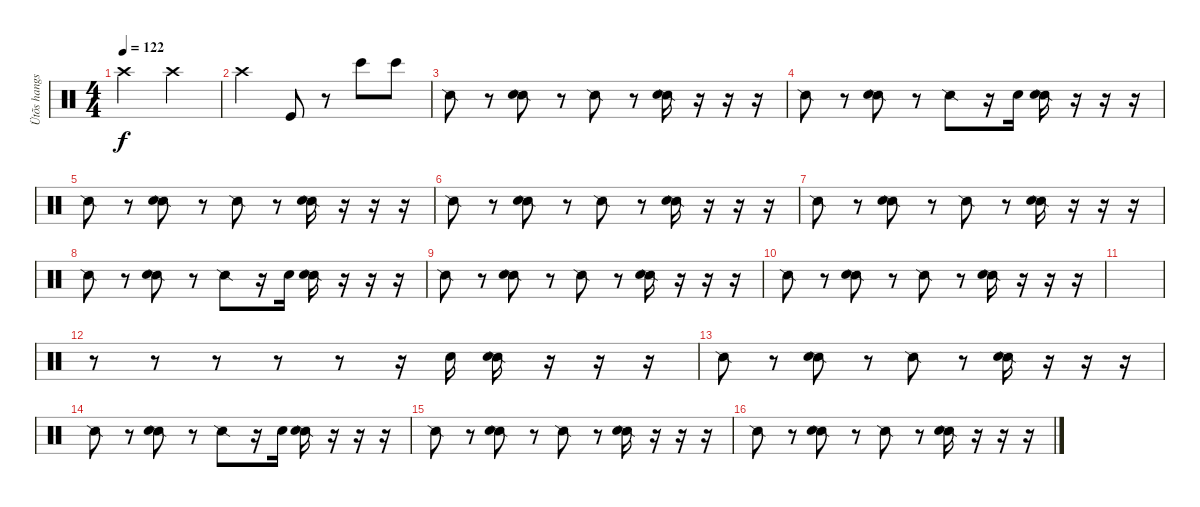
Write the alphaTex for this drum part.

\track ("Ütõs hangszer" "Ütõs hangs") {instrument percussion}
\staff {score}
\articulation defaults
\ts (4 4)
\tempo 122
\clef neutral
\ks c "Crash high (hit)".2{dy f} "Crash high (hit)".2
|
"Crash high (hit)".2 "Kick (hit)".8 r.8 "Bongo High (hit)".8 "Bongo High (hit)".8 |
"Snare (side stick) 2".8 r.8 ("Snare (side stick) 2" "Hand Clap (hit)").8 r.8 "Snare (side stick) 2".8 r.8 ("Snare (side stick) 2" "Hand Clap (hit)").16 r.16 r.16 r.16 |
"Snare (side stick) 2".8 r.8 ("Snare (side stick) 2" "Hand Clap (hit)").8 r.8 "Snare (side stick) 2".8 r.16 "Hand Clap (hit)".16 ("Snare (side stick) 2" "Hand Clap (hit)").16 r.16 r.16 r.16 |
"Snare (side stick) 2".8 r.8 ("Snare (side stick) 2" "Hand Clap (hit)").8 r.8 "Snare (side stick) 2".8 r.8 ("Snare (side stick) 2" "Hand Clap (hit)").16 r.16 r.16 r.16 |
"Snare (side stick) 2".8 r.8 ("Snare (side stick) 2" "Hand Clap (hit)").8 r.8 "Snare (side stick) 2".8 r.8 ("Snare (side stick) 2" "Hand Clap (hit)").16 r.16 r.16 r.16 |
"Snare (side stick) 2".8 r.8 ("Snare (side stick) 2" "Hand Clap (hit)").8 r.8 "Snare (side stick) 2".8 r.8 ("Snare (side stick) 2" "Hand Clap (hit)").16 r.16 r.16 r.16 |
"Snare (side stick) 2".8 r.8 ("Snare (side stick) 2" "Hand Clap (hit)").8 r.8 "Snare (side stick) 2".8 r.16 "Hand Clap (hit)".16 ("Snare (side stick) 2" "Hand Clap (hit)").16 r.16 r.16 r.16 |
"Snare (side stick) 2".8 r.8 ("Snare (side stick) 2" "Hand Clap (hit)").8 r.8 "Snare (side stick) 2".8 r.8 ("Snare (side stick) 2" "Hand Clap (hit)").16 r.16 r.16 r.16 |
"Snare (side stick) 2".8 r.8 ("Snare (side stick) 2" "Hand Clap (hit)").8 r.8 "Snare (side stick) 2".8 r.8 ("Snare (side stick) 2" "Hand Clap (hit)").16 r.16 r.16 r.16 |
|
r.8 r.8 r.8 r.8 r.8 r.16 "Hand Clap (hit)".16 ("Snare (side stick) 2" "Hand Clap (hit)").16 r.16 r.16 r.16 |
"Snare (side stick) 2".8 r.8 ("Snare (side stick) 2" "Hand Clap (hit)").8 r.8 "Snare (side stick) 2".8 r.8 ("Snare (side stick) 2" "Hand Clap (hit)").16 r.16 r.16 r.16 |
"Snare (side stick) 2".8 r.8 ("Snare (side stick) 2" "Hand Clap (hit)").8 r.8 "Snare (side stick) 2".8 r.16 "Hand Clap (hit)".16 ("Snare (side stick) 2" "Hand Clap (hit)").16 r.16 r.16 r.16 |
"Snare (side stick) 2".8 r.8 ("Snare (side stick) 2" "Hand Clap (hit)").8 r.8 "Snare (side stick) 2".8 r.8 ("Snare (side stick) 2" "Hand Clap (hit)").16 r.16 r.16 r.16 |
"Snare (side stick) 2".8 r.8 ("Snare (side stick) 2" "Hand Clap (hit)").8 r.8 "Snare (side stick) 2".8 r.8 ("Snare (side stick) 2" "Hand Clap (hit)").16 r.16 r.16 r.16
